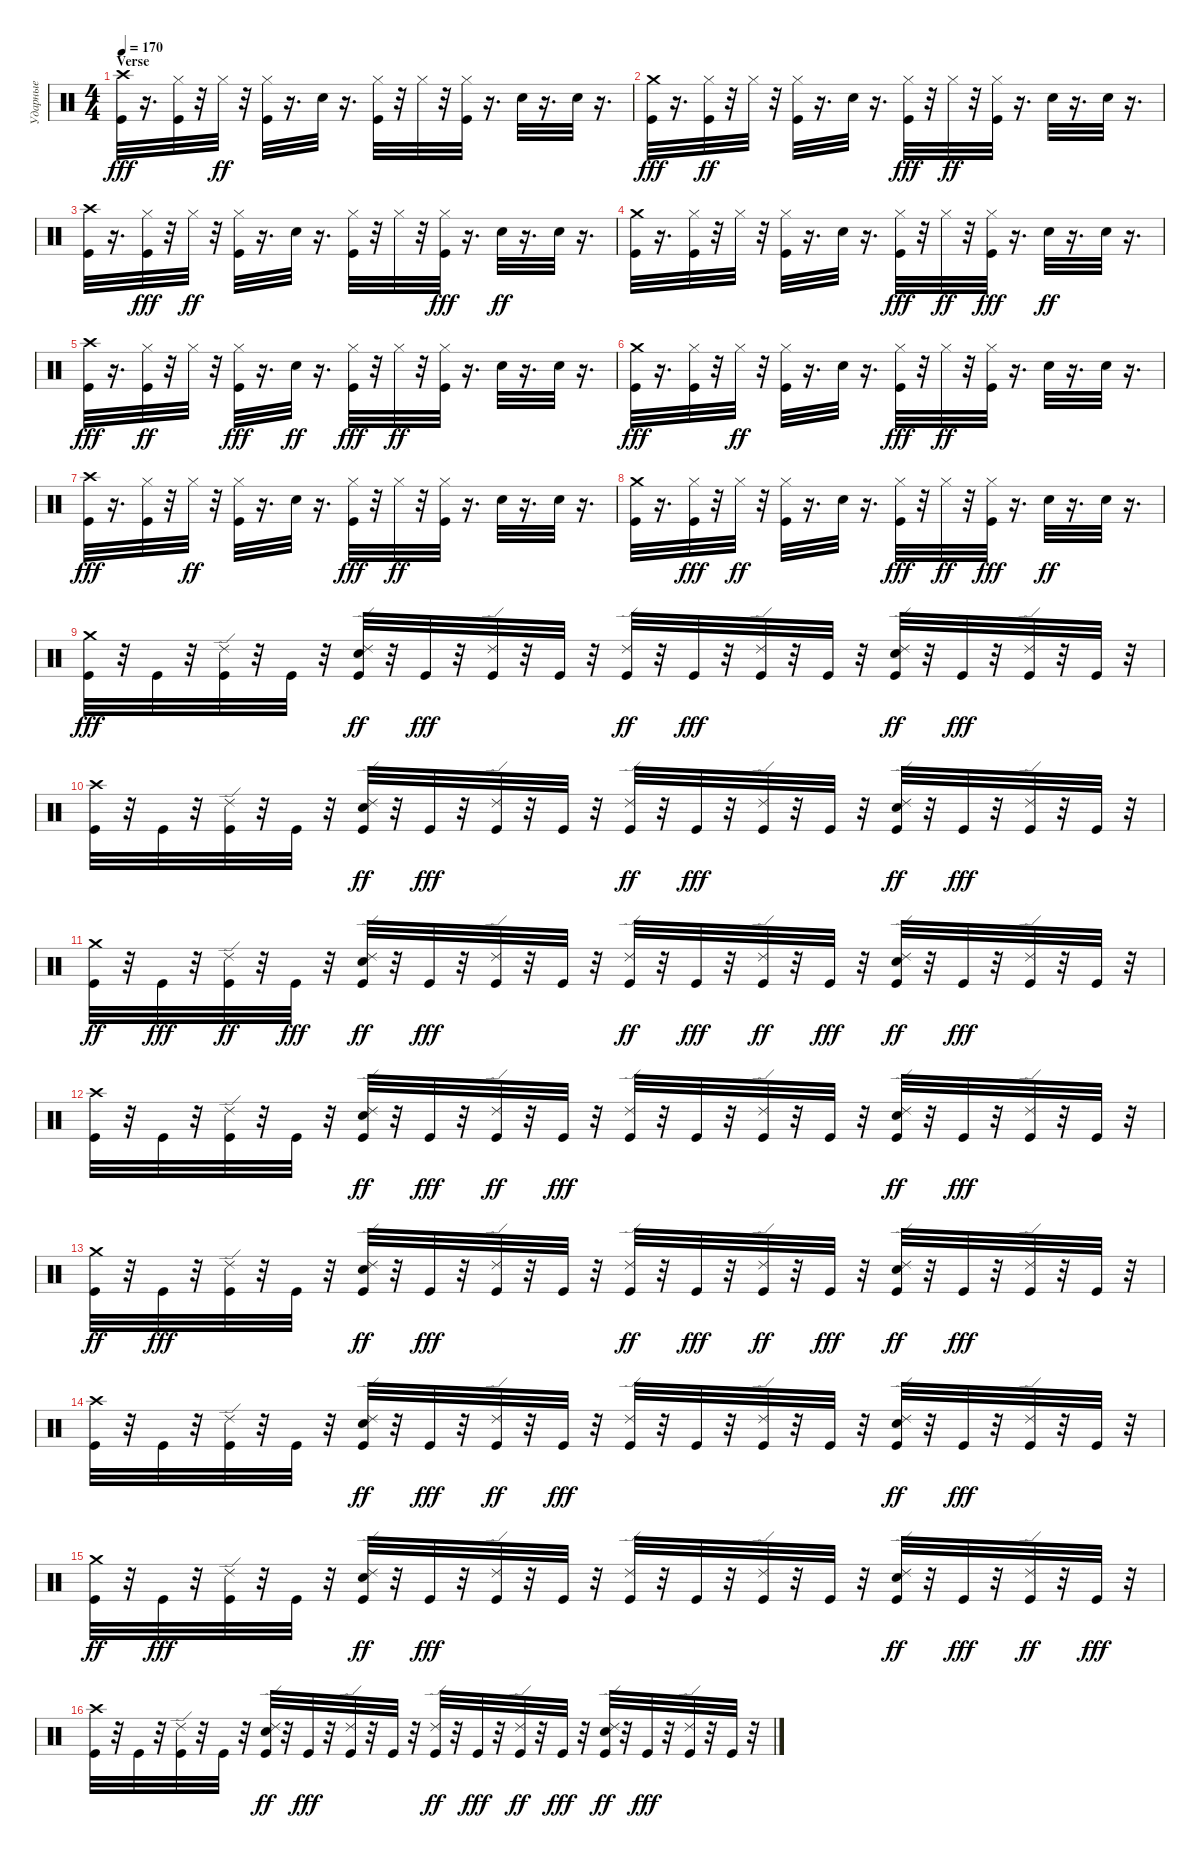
\track ("Ударные" "Ударные") {instrument percussion}
\staff {score}
\articulation defaults
\ts (4 4)
\section ("" "Verse")
\tempo 170
\clef neutral
\ks c
("Crash high (hit)" "Kick (hit)").32{dy fff} r.16{d} ("Hi-Hat (closed)" "Kick (hit)").32 r.32 "Hi-Hat (closed)".32{dy ff} r.32 ("Kick (hit)" "Hi-Hat (closed)").32 r.16{d} "Snare (hit) 2".32 r.16{d} ("Kick (hit)" "Hi-Hat (closed)").32 r.32 "Hi-Hat (closed)".32 r.32 ("Kick (hit)" "Hi-Hat (closed)").32 r.16{d} "Snare (hit) 2".32 r.16{d} "Snare (hit) 2".32 r.16{d} |
("Crash medium (hit)" "Kick (hit)").32{dy fff} r.16{d} ("Kick (hit)" "Hi-Hat (closed)").32{dy ff} r.32 "Hi-Hat (closed)".32 r.32 ("Kick (hit)" "Hi-Hat (closed)").32 r.16{d} "Snare (hit) 2".32 r.16{d} ("Hi-Hat (closed)" "Kick (hit)").32{dy fff} r.32 "Hi-Hat (closed)".32{dy ff} r.32 ("Kick (hit)" "Hi-Hat (closed)").32 r.16{d} "Snare (hit) 2".32 r.16{d} "Snare (hit) 2".32 r.16{d} |
("Kick (hit)" "Crash high (hit)").32 r.16{d} ("Hi-Hat (closed)" "Kick (hit)").32{dy fff} r.32 "Hi-Hat (closed)".32{dy ff} r.32 ("Kick (hit)" "Hi-Hat (closed)").32 r.16{d} "Snare (hit) 2".32 r.16{d} ("Kick (hit)" "Hi-Hat (closed)").32 r.32 "Hi-Hat (closed)".32 r.32 ("Hi-Hat (closed)" "Kick (hit)").32{dy fff} r.16{d} "Snare (hit) 2".32{dy ff} r.16{d} "Snare (hit) 2".32 r.16{d} |
("Kick (hit)" "Crash medium (hit)").32 r.16{d} ("Kick (hit)" "Hi-Hat (closed)").32 r.32 "Hi-Hat (closed)".32 r.32 ("Kick (hit)" "Hi-Hat (closed)").32 r.16{d} "Snare (hit) 2".32 r.16{d} ("Hi-Hat (closed)" "Kick (hit)").32{dy fff} r.32 "Hi-Hat (closed)".32{dy ff} r.32 ("Hi-Hat (closed)" "Kick (hit)").32{dy fff} r.16{d} "Snare (hit) 2".32{dy ff} r.16{d} "Snare (hit) 2".32 r.16{d} |
("Crash high (hit)" "Kick (hit)").32{dy fff} r.16{d} ("Kick (hit)" "Hi-Hat (closed)").32{dy ff} r.32 "Hi-Hat (closed)".32 r.32 ("Hi-Hat (closed)" "Kick (hit)").32{dy fff} r.16{d} "Snare (hit) 2".32{dy ff} r.16{d} ("Hi-Hat (closed)" "Kick (hit)").32{dy fff} r.32 "Hi-Hat (closed)".32{dy ff} r.32 ("Kick (hit)" "Hi-Hat (closed)").32 r.16{d} "Snare (hit) 2".32 r.16{d} "Snare (hit) 2".32 r.16{d} |
("Crash medium (hit)" "Kick (hit)").32{dy fff} r.16{d} ("Hi-Hat (closed)" "Kick (hit)").32 r.32 "Hi-Hat (closed)".32{dy ff} r.32 ("Kick (hit)" "Hi-Hat (closed)").32 r.16{d} "Snare (hit) 2".32 r.16{d} ("Hi-Hat (closed)" "Kick (hit)").32{dy fff} r.32 "Hi-Hat (closed)".32{dy ff} r.32 ("Kick (hit)" "Hi-Hat (closed)").32 r.16{d} "Snare (hit) 2".32 r.16{d} "Snare (hit) 2".32 r.16{d} |
("Crash high (hit)" "Kick (hit)").32{dy fff} r.16{d} ("Hi-Hat (closed)" "Kick (hit)").32 r.32 "Hi-Hat (closed)".32{dy ff} r.32 ("Kick (hit)" "Hi-Hat (closed)").32 r.16{d} "Snare (hit) 2".32 r.16{d} ("Hi-Hat (closed)" "Kick (hit)").32{dy fff} r.32 "Hi-Hat (closed)".32{dy ff} r.32 ("Kick (hit)" "Hi-Hat (closed)").32 r.16{d} "Snare (hit) 2".32 r.16{d} "Snare (hit) 2".32 r.16{d} |
("Kick (hit)" "Crash medium (hit)").32 r.16{d} ("Hi-Hat (closed)" "Kick (hit)").32{dy fff} r.32 "Hi-Hat (closed)".32{dy ff} r.32 ("Kick (hit)" "Hi-Hat (closed)").32 r.16{d} "Snare (hit) 2".32 r.16{d} ("Hi-Hat (closed)" "Kick (hit)").32{dy fff} r.32 "Hi-Hat (closed)".32{dy ff} r.32 ("Hi-Hat (closed)" "Kick (hit)").32{dy fff} r.16{d} "Snare (hit) 2".32{dy ff} r.16{d} "Snare (hit) 2".32 r.16{d} |
("Crash medium (hit)" "Kick (hit)").32{dy fff} r.32 "Kick (hit)".32 r.32 ("Ride (edge) 2" "Kick (hit)").32 r.32 "Kick (hit)".32 r.32 ("Ride (edge) 2" "Kick (hit)" "Snare (hit) 2").32{dy ff} r.32 "Kick (hit)".32{dy fff} r.32 ("Ride (edge) 2" "Kick (hit)").32 r.32 "Kick (hit)".32 r.32 ("Kick (hit)" "Ride (edge) 2").32{dy ff} r.32 "Kick (hit)".32{dy fff} r.32 ("Ride (edge) 2" "Kick (hit)").32 r.32 "Kick (hit)".32 r.32 ("Ride (edge) 2" "Kick (hit)" "Snare (hit) 2").32{dy ff} r.32 "Kick (hit)".32{dy fff} r.32 ("Ride (edge) 2" "Kick (hit)").32 r.32 "Kick (hit)".32 r.32 |
("Crash high (hit)" "Kick (hit)").32 r.32 "Kick (hit)".32 r.32 ("Ride (edge) 2" "Kick (hit)").32 r.32 "Kick (hit)".32 r.32 ("Ride (edge) 2" "Kick (hit)" "Snare (hit) 2").32{dy ff} r.32 "Kick (hit)".32{dy fff} r.32 ("Ride (edge) 2" "Kick (hit)").32 r.32 "Kick (hit)".32 r.32 ("Kick (hit)" "Ride (edge) 2").32{dy ff} r.32 "Kick (hit)".32{dy fff} r.32 ("Ride (edge) 2" "Kick (hit)").32 r.32 "Kick (hit)".32 r.32 ("Ride (edge) 2" "Kick (hit)" "Snare (hit) 2").32{dy ff} r.32 "Kick (hit)".32{dy fff} r.32 ("Ride (edge) 2" "Kick (hit)").32 r.32 "Kick (hit)".32 r.32 |
("Kick (hit)" "Crash medium (hit)").32{dy ff} r.32 "Kick (hit)".32{dy fff} r.32 ("Kick (hit)" "Ride (edge) 2").32{dy ff} r.32 "Kick (hit)".32{dy fff} r.32 ("Kick (hit)" "Ride (edge) 2" "Snare (hit) 2").32{dy ff} r.32 "Kick (hit)".32{dy fff} r.32 ("Ride (edge) 2" "Kick (hit)").32 r.32 "Kick (hit)".32 r.32 ("Kick (hit)" "Ride (edge) 2").32{dy ff} r.32 "Kick (hit)".32{dy fff} r.32 ("Kick (hit)" "Ride (edge) 2").32{dy ff} r.32 "Kick (hit)".32{dy fff} r.32 ("Kick (hit)" "Ride (edge) 2" "Snare (hit) 2").32{dy ff} r.32 "Kick (hit)".32{dy fff} r.32 ("Ride (edge) 2" "Kick (hit)").32 r.32 "Kick (hit)".32 r.32 |
("Kick (hit)" "Crash high (hit)").32 r.32 "Kick (hit)".32 r.32 ("Ride (edge) 2" "Kick (hit)").32 r.32 "Kick (hit)".32 r.32 ("Ride (edge) 2" "Kick (hit)" "Snare (hit) 2").32{dy ff} r.32 "Kick (hit)".32{dy fff} r.32 ("Kick (hit)" "Ride (edge) 2").32{dy ff} r.32 "Kick (hit)".32{dy fff} r.32 ("Ride (edge) 2" "Kick (hit)").32 r.32 "Kick (hit)".32 r.32 ("Ride (edge) 2" "Kick (hit)").32 r.32 "Kick (hit)".32 r.32 ("Kick (hit)" "Ride (edge) 2" "Snare (hit) 2").32{dy ff} r.32 "Kick (hit)".32{dy fff} r.32 ("Ride (edge) 2" "Kick (hit)").32 r.32 "Kick (hit)".32 r.32 |
("Kick (hit)" "Crash medium (hit)").32{dy ff} r.32 "Kick (hit)".32{dy fff} r.32 ("Ride (edge) 2" "Kick (hit)").32 r.32 "Kick (hit)".32 r.32 ("Kick (hit)" "Ride (edge) 2" "Snare (hit) 2").32{dy ff} r.32 "Kick (hit)".32{dy fff} r.32 ("Ride (edge) 2" "Kick (hit)").32 r.32 "Kick (hit)".32 r.32 ("Kick (hit)" "Ride (edge) 2").32{dy ff} r.32 "Kick (hit)".32{dy fff} r.32 ("Kick (hit)" "Ride (edge) 2").32{dy ff} r.32 "Kick (hit)".32{dy fff} r.32 ("Kick (hit)" "Ride (edge) 2" "Snare (hit) 2").32{dy ff} r.32 "Kick (hit)".32{dy fff} r.32 ("Ride (edge) 2" "Kick (hit)").32 r.32 "Kick (hit)".32 r.32 |
("Kick (hit)" "Crash high (hit)").32 r.32 "Kick (hit)".32 r.32 ("Ride (edge) 2" "Kick (hit)").32 r.32 "Kick (hit)".32 r.32 ("Ride (edge) 2" "Kick (hit)" "Snare (hit) 2").32{dy ff} r.32 "Kick (hit)".32{dy fff} r.32 ("Kick (hit)" "Ride (edge) 2").32{dy ff} r.32 "Kick (hit)".32{dy fff} r.32 ("Ride (edge) 2" "Kick (hit)").32 r.32 "Kick (hit)".32 r.32 ("Ride (edge) 2" "Kick (hit)").32 r.32 "Kick (hit)".32 r.32 ("Kick (hit)" "Ride (edge) 2" "Snare (hit) 2").32{dy ff} r.32 "Kick (hit)".32{dy fff} r.32 ("Ride (edge) 2" "Kick (hit)").32 r.32 "Kick (hit)".32 r.32 |
("Kick (hit)" "Crash medium (hit)").32{dy ff} r.32 "Kick (hit)".32{dy fff} r.32 ("Ride (edge) 2" "Kick (hit)").32 r.32 "Kick (hit)".32 r.32 ("Ride (edge) 2" "Kick (hit)" "Snare (hit) 2").32{dy ff} r.32 "Kick (hit)".32{dy fff} r.32 ("Ride (edge) 2" "Kick (hit)").32 r.32 "Kick (hit)".32 r.32 ("Ride (edge) 2" "Kick (hit)").32 r.32 "Kick (hit)".32 r.32 ("Ride (edge) 2" "Kick (hit)").32 r.32 "Kick (hit)".32 r.32 ("Ride (edge) 2" "Kick (hit)" "Snare (hit) 2").32{dy ff} r.32 "Kick (hit)".32{dy fff} r.32 ("Kick (hit)" "Ride (edge) 2").32{dy ff} r.32 "Kick (hit)".32{dy fff} r.32 |
("Crash high (hit)" "Kick (hit)").32 r.32 "Kick (hit)".32 r.32 ("Ride (edge) 2" "Kick (hit)").32 r.32 "Kick (hit)".32 r.32 ("Kick (hit)" "Ride (edge) 2" "Snare (hit) 2").32{dy ff} r.32 "Kick (hit)".32{dy fff} r.32 ("Ride (edge) 2" "Kick (hit)").32 r.32 "Kick (hit)".32 r.32 ("Kick (hit)" "Ride (edge) 2").32{dy ff} r.32 "Kick (hit)".32{dy fff} r.32 ("Kick (hit)" "Ride (edge) 2").32{dy ff} r.32 "Kick (hit)".32{dy fff} r.32 ("Ride (edge) 2" "Kick (hit)" "Snare (hit) 2").32{dy ff} r.32 "Kick (hit)".32{dy fff} r.32 ("Ride (edge) 2" "Kick (hit)").32 r.32 "Kick (hit)".32 r.32
